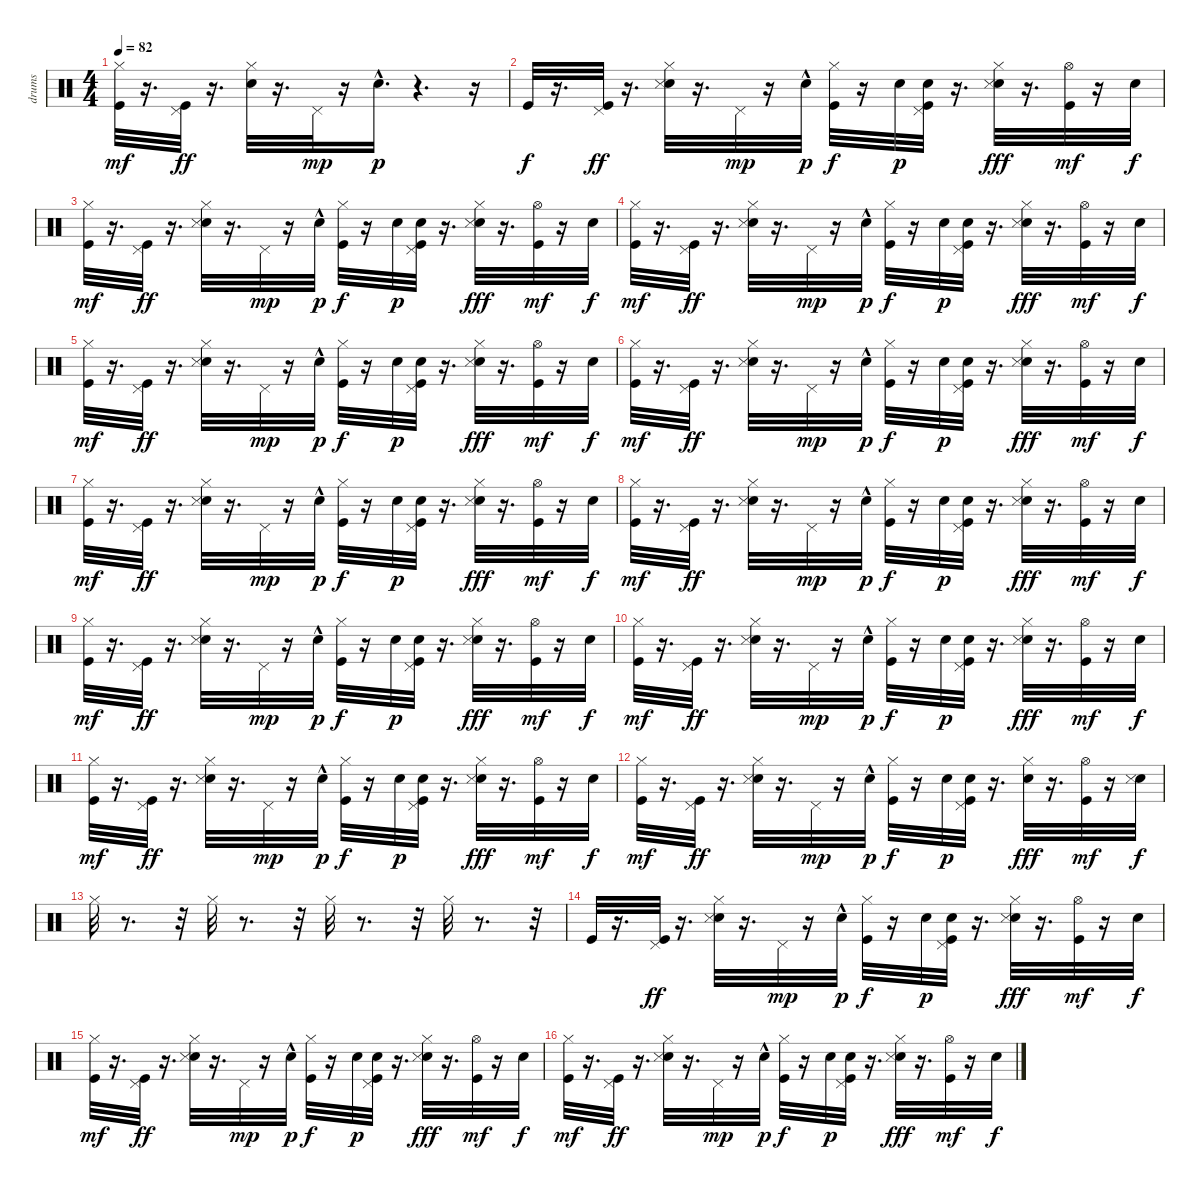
\track ("drums" "drums") {instrument percussion}
\staff {score}
\articulation defaults
\ts (4 4)
\tempo 82
\clef neutral
\ks c
("Hi-Hat (closed)" "Kick (hit)").32{dy mf} r.16{d} ("Pedal Hi-Hat (hit)" "Kick (hit)").32{dy ff} r.16{d} ("Electric Snare (hit)" "Hi-Hat (closed)").32 r.16{d} "Pedal Hi-Hat (hit)".32{dy mp} r.16 "Electric Snare (hit)"{hac}.16{d dy p} r.4{d} r.16 |
"Kick (hit)".32{dy f} r.16{d} ("Pedal Hi-Hat (hit)" "Kick (hit)").32{dy ff} r.16{d} ("Electric Snare (hit)" "Hi-Hat (closed)" "Snare (side stick) 3").32 r.16{d} "Pedal Hi-Hat (hit)".32{dy mp} r.16 "Electric Snare (hit)"{hac}.32{dy p} ("Hi-Hat (closed)" "Kick (hit)").32{dy f} r.16 "Electric Snare (hit)".32{dy p} ("Electric Snare (hit)" "Pedal Hi-Hat (hit)" "Kick (hit)").32 r.16{d} ("Electric Snare (hit)" "Hi-Hat (closed)" "Snare (side stick) 3").32{dy fff} r.16{d} ("Hi-Hat (open)" "Kick (hit)").32{dy mf} r.16 "Electric Snare (hit)".32{dy f} |
("Hi-Hat (closed)" "Kick (hit)").32{dy mf} r.16{d} ("Pedal Hi-Hat (hit)" "Kick (hit)").32{dy ff} r.16{d} ("Electric Snare (hit)" "Hi-Hat (closed)" "Snare (side stick) 3").32 r.16{d} "Pedal Hi-Hat (hit)".32{dy mp} r.16 "Electric Snare (hit)"{hac}.32{dy p} ("Hi-Hat (closed)" "Kick (hit)").32{dy f} r.16 "Electric Snare (hit)".32{dy p} ("Electric Snare (hit)" "Pedal Hi-Hat (hit)" "Kick (hit)").32 r.16{d} ("Electric Snare (hit)" "Hi-Hat (closed)" "Snare (side stick) 3").32{dy fff} r.16{d} ("Hi-Hat (open)" "Kick (hit)").32{dy mf} r.16 "Electric Snare (hit)".32{dy f} |
("Hi-Hat (closed)" "Kick (hit)").32{dy mf} r.16{d} ("Pedal Hi-Hat (hit)" "Kick (hit)").32{dy ff} r.16{d} ("Electric Snare (hit)" "Hi-Hat (closed)" "Snare (side stick) 3").32 r.16{d} "Pedal Hi-Hat (hit)".32{dy mp} r.16 "Electric Snare (hit)"{hac}.32{dy p} ("Hi-Hat (closed)" "Kick (hit)").32{dy f} r.16 "Electric Snare (hit)".32{dy p} ("Electric Snare (hit)" "Pedal Hi-Hat (hit)" "Kick (hit)").32 r.16{d} ("Electric Snare (hit)" "Hi-Hat (closed)" "Snare (side stick) 3").32{dy fff} r.16{d} ("Hi-Hat (open)" "Kick (hit)").32{dy mf} r.16 "Electric Snare (hit)".32{dy f} |
("Hi-Hat (closed)" "Kick (hit)").32{dy mf} r.16{d} ("Pedal Hi-Hat (hit)" "Kick (hit)").32{dy ff} r.16{d} ("Electric Snare (hit)" "Hi-Hat (closed)" "Snare (side stick) 3").32 r.16{d} "Pedal Hi-Hat (hit)".32{dy mp} r.16 "Electric Snare (hit)"{hac}.32{dy p} ("Hi-Hat (closed)" "Kick (hit)").32{dy f} r.16 "Electric Snare (hit)".32{dy p} ("Electric Snare (hit)" "Pedal Hi-Hat (hit)" "Kick (hit)").32 r.16{d} ("Electric Snare (hit)" "Hi-Hat (closed)" "Snare (side stick) 3").32{dy fff} r.16{d} ("Hi-Hat (open)" "Kick (hit)").32{dy mf} r.16 "Electric Snare (hit)".32{dy f} |
("Hi-Hat (closed)" "Kick (hit)").32{dy mf} r.16{d} ("Pedal Hi-Hat (hit)" "Kick (hit)").32{dy ff} r.16{d} ("Electric Snare (hit)" "Hi-Hat (closed)" "Snare (side stick) 3").32 r.16{d} "Pedal Hi-Hat (hit)".32{dy mp} r.16 "Electric Snare (hit)"{hac}.32{dy p} ("Hi-Hat (closed)" "Kick (hit)").32{dy f} r.16 "Electric Snare (hit)".32{dy p} ("Electric Snare (hit)" "Pedal Hi-Hat (hit)" "Kick (hit)").32 r.16{d} ("Electric Snare (hit)" "Hi-Hat (closed)" "Snare (side stick) 3").32{dy fff} r.16{d} ("Hi-Hat (open)" "Kick (hit)").32{dy mf} r.16 "Electric Snare (hit)".32{dy f} |
("Hi-Hat (closed)" "Kick (hit)").32{dy mf} r.16{d} ("Pedal Hi-Hat (hit)" "Kick (hit)").32{dy ff} r.16{d} ("Electric Snare (hit)" "Hi-Hat (closed)" "Snare (side stick) 3").32 r.16{d} "Pedal Hi-Hat (hit)".32{dy mp} r.16 "Electric Snare (hit)"{hac}.32{dy p} ("Hi-Hat (closed)" "Kick (hit)").32{dy f} r.16 "Electric Snare (hit)".32{dy p} ("Electric Snare (hit)" "Pedal Hi-Hat (hit)" "Kick (hit)").32 r.16{d} ("Electric Snare (hit)" "Hi-Hat (closed)" "Snare (side stick) 3").32{dy fff} r.16{d} ("Hi-Hat (open)" "Kick (hit)").32{dy mf} r.16 "Electric Snare (hit)".32{dy f} |
("Hi-Hat (closed)" "Kick (hit)").32{dy mf} r.16{d} ("Pedal Hi-Hat (hit)" "Kick (hit)").32{dy ff} r.16{d} ("Electric Snare (hit)" "Hi-Hat (closed)" "Snare (side stick) 3").32 r.16{d} "Pedal Hi-Hat (hit)".32{dy mp} r.16 "Electric Snare (hit)"{hac}.32{dy p} ("Hi-Hat (closed)" "Kick (hit)").32{dy f} r.16 "Electric Snare (hit)".32{dy p} ("Electric Snare (hit)" "Pedal Hi-Hat (hit)" "Kick (hit)").32 r.16{d} ("Electric Snare (hit)" "Hi-Hat (closed)" "Snare (side stick) 3").32{dy fff} r.16{d} ("Hi-Hat (open)" "Kick (hit)").32{dy mf} r.16 "Electric Snare (hit)".32{dy f} |
("Hi-Hat (closed)" "Kick (hit)").32{dy mf} r.16{d} ("Pedal Hi-Hat (hit)" "Kick (hit)").32{dy ff} r.16{d} ("Electric Snare (hit)" "Hi-Hat (closed)" "Snare (side stick) 3").32 r.16{d} "Pedal Hi-Hat (hit)".32{dy mp} r.16 "Electric Snare (hit)"{hac}.32{dy p} ("Hi-Hat (closed)" "Kick (hit)").32{dy f} r.16 "Electric Snare (hit)".32{dy p} ("Electric Snare (hit)" "Pedal Hi-Hat (hit)" "Kick (hit)").32 r.16{d} ("Electric Snare (hit)" "Hi-Hat (closed)" "Snare (side stick) 3").32{dy fff} r.16{d} ("Hi-Hat (open)" "Kick (hit)").32{dy mf} r.16 "Electric Snare (hit)".32{dy f} |
("Hi-Hat (closed)" "Kick (hit)").32{dy mf} r.16{d} ("Pedal Hi-Hat (hit)" "Kick (hit)").32{dy ff} r.16{d} ("Electric Snare (hit)" "Hi-Hat (closed)" "Snare (side stick) 3").32 r.16{d} "Pedal Hi-Hat (hit)".32{dy mp} r.16 "Electric Snare (hit)"{hac}.32{dy p} ("Hi-Hat (closed)" "Kick (hit)").32{dy f} r.16 "Electric Snare (hit)".32{dy p} ("Electric Snare (hit)" "Pedal Hi-Hat (hit)" "Kick (hit)").32 r.16{d} ("Electric Snare (hit)" "Hi-Hat (closed)" "Snare (side stick) 3").32{dy fff} r.16{d} ("Hi-Hat (open)" "Kick (hit)").32{dy mf} r.16 "Electric Snare (hit)".32{dy f} |
("Hi-Hat (closed)" "Kick (hit)").32{dy mf} r.16{d} ("Pedal Hi-Hat (hit)" "Kick (hit)").32{dy ff} r.16{d} ("Electric Snare (hit)" "Hi-Hat (closed)" "Snare (side stick) 3").32 r.16{d} "Pedal Hi-Hat (hit)".32{dy mp} r.16 "Electric Snare (hit)"{hac}.32{dy p} ("Hi-Hat (closed)" "Kick (hit)").32{dy f} r.16 "Electric Snare (hit)".32{dy p} ("Electric Snare (hit)" "Pedal Hi-Hat (hit)" "Kick (hit)").32 r.16{d} ("Electric Snare (hit)" "Hi-Hat (closed)" "Snare (side stick) 3").32{dy fff} r.16{d} ("Hi-Hat (open)" "Kick (hit)").32{dy mf} r.16 "Electric Snare (hit)".32{dy f} |
("Hi-Hat (closed)" "Kick (hit)").32{dy mf} r.16{d} ("Pedal Hi-Hat (hit)" "Kick (hit)").32{dy ff} r.16{d} ("Electric Snare (hit)" "Hi-Hat (closed)" "Snare (side stick) 3").32 r.16{d} "Pedal Hi-Hat (hit)".32{dy mp} r.16 "Electric Snare (hit)"{hac}.32{dy p} ("Hi-Hat (closed)" "Kick (hit)").32{dy f} r.16 "Electric Snare (hit)".32{dy p} ("Electric Snare (hit)" "Pedal Hi-Hat (hit)" "Kick (hit)").32 r.16{d} ("Electric Snare (hit)" "Hi-Hat (closed)").32{dy fff} r.16{d} ("Hi-Hat (open)" "Kick (hit)").32{dy mf} r.16 ("Electric Snare (hit)" "Snare (side stick) 3").32{dy f} |
"Hi-Hat (closed)".32 r.8{d} r.32 "Hi-Hat (closed)".32 r.8{d} r.32 "Hi-Hat (closed)".32 r.8{d} r.32 "Hi-Hat (closed)".32 r.8{d} r.32 |
"Kick (hit)".32 r.16{d} ("Pedal Hi-Hat (hit)" "Kick (hit)").32{dy ff} r.16{d} ("Electric Snare (hit)" "Hi-Hat (closed)" "Snare (side stick) 3").32 r.16{d} "Pedal Hi-Hat (hit)".32{dy mp} r.16 "Electric Snare (hit)"{hac}.32{dy p} ("Hi-Hat (closed)" "Kick (hit)").32{dy f} r.16 "Electric Snare (hit)".32{dy p} ("Electric Snare (hit)" "Pedal Hi-Hat (hit)" "Kick (hit)").32 r.16{d} ("Electric Snare (hit)" "Hi-Hat (closed)" "Snare (side stick) 3").32{dy fff} r.16{d} ("Hi-Hat (open)" "Kick (hit)").32{dy mf} r.16 "Electric Snare (hit)".32{dy f} |
("Hi-Hat (closed)" "Kick (hit)").32{dy mf} r.16{d} ("Pedal Hi-Hat (hit)" "Kick (hit)").32{dy ff} r.16{d} ("Electric Snare (hit)" "Hi-Hat (closed)" "Snare (side stick) 3").32 r.16{d} "Pedal Hi-Hat (hit)".32{dy mp} r.16 "Electric Snare (hit)"{hac}.32{dy p} ("Hi-Hat (closed)" "Kick (hit)").32{dy f} r.16 "Electric Snare (hit)".32{dy p} ("Electric Snare (hit)" "Pedal Hi-Hat (hit)" "Kick (hit)").32 r.16{d} ("Electric Snare (hit)" "Hi-Hat (closed)" "Snare (side stick) 3").32{dy fff} r.16{d} ("Hi-Hat (open)" "Kick (hit)").32{dy mf} r.16 "Electric Snare (hit)".32{dy f} |
("Hi-Hat (closed)" "Kick (hit)").32{dy mf} r.16{d} ("Pedal Hi-Hat (hit)" "Kick (hit)").32{dy ff} r.16{d} ("Electric Snare (hit)" "Hi-Hat (closed)" "Snare (side stick) 3").32 r.16{d} "Pedal Hi-Hat (hit)".32{dy mp} r.16 "Electric Snare (hit)"{hac}.32{dy p} ("Hi-Hat (closed)" "Kick (hit)").32{dy f} r.16 "Electric Snare (hit)".32{dy p} ("Electric Snare (hit)" "Pedal Hi-Hat (hit)" "Kick (hit)").32 r.16{d} ("Electric Snare (hit)" "Hi-Hat (closed)" "Snare (side stick) 3").32{dy fff} r.16{d} ("Hi-Hat (open)" "Kick (hit)").32{dy mf} r.16 "Electric Snare (hit)".32{dy f}
